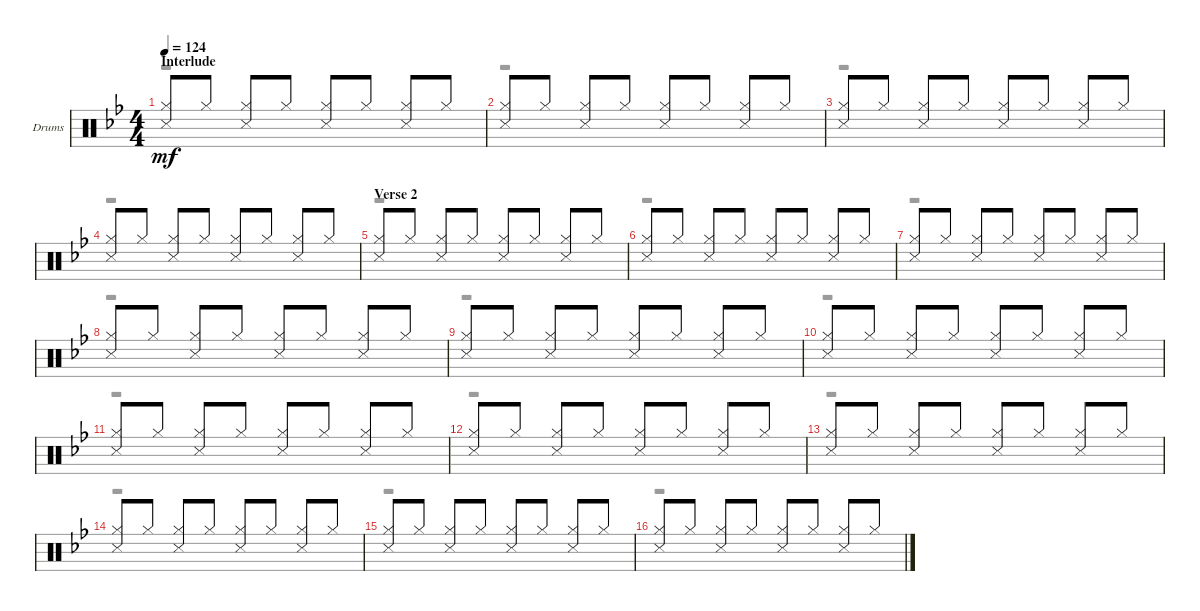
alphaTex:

\defaultSystemsLayout 4
\bracketExtendMode groupsimilarinstruments
\firstSystemTrackNameOrientation horizontal
\otherSystemsTrackNameOrientation horizontal
\track ("Drums" "Drums") {instrument percussion}
\staff {score}
\articulation defaults
\voice
\ts (4 4)
\section ("" "Interlude")
\tempo 124
\clef neutral
\ks gminor
("Hi-Hat (closed)" "Snare (side stick) 3").8{dy mf} "Hi-Hat (closed)".8 ("Hi-Hat (closed)" "Snare (side stick) 3").8 "Hi-Hat (closed)".8 ("Hi-Hat (closed)" "Snare (side stick) 3").8 "Hi-Hat (closed)".8 ("Hi-Hat (closed)" "Snare (side stick) 3").8 "Hi-Hat (closed)".8 |
("Hi-Hat (closed)" "Snare (side stick) 3").8 "Hi-Hat (closed)".8 ("Hi-Hat (closed)" "Snare (side stick) 3").8 "Hi-Hat (closed)".8 ("Hi-Hat (closed)" "Snare (side stick) 3").8 "Hi-Hat (closed)".8 ("Hi-Hat (closed)" "Snare (side stick) 3").8 "Hi-Hat (closed)".8 |
("Hi-Hat (closed)" "Snare (side stick) 3").8 "Hi-Hat (closed)".8 ("Hi-Hat (closed)" "Snare (side stick) 3").8 "Hi-Hat (closed)".8 ("Hi-Hat (closed)" "Snare (side stick) 3").8 "Hi-Hat (closed)".8 ("Hi-Hat (closed)" "Snare (side stick) 3").8 "Hi-Hat (closed)".8 |
("Hi-Hat (closed)" "Snare (side stick) 3").8 "Hi-Hat (closed)".8 ("Hi-Hat (closed)" "Snare (side stick) 3").8 "Hi-Hat (closed)".8 ("Hi-Hat (closed)" "Snare (side stick) 3").8 "Hi-Hat (closed)".8 ("Hi-Hat (closed)" "Snare (side stick) 3").8 "Hi-Hat (closed)".8 |
\section ("" "Verse 2")
("Hi-Hat (closed)" "Snare (side stick) 3").8 "Hi-Hat (closed)".8 ("Hi-Hat (closed)" "Snare (side stick) 3").8 "Hi-Hat (closed)".8 ("Hi-Hat (closed)" "Snare (side stick) 3").8 "Hi-Hat (closed)".8 ("Hi-Hat (closed)" "Snare (side stick) 3").8 "Hi-Hat (closed)".8 |
("Hi-Hat (closed)" "Snare (side stick) 3").8 "Hi-Hat (closed)".8 ("Hi-Hat (closed)" "Snare (side stick) 3").8 "Hi-Hat (closed)".8 ("Hi-Hat (closed)" "Snare (side stick) 3").8 "Hi-Hat (closed)".8 ("Hi-Hat (closed)" "Snare (side stick) 3").8 "Hi-Hat (closed)".8 |
("Hi-Hat (closed)" "Snare (side stick) 3").8 "Hi-Hat (closed)".8 ("Hi-Hat (closed)" "Snare (side stick) 3").8 "Hi-Hat (closed)".8 ("Hi-Hat (closed)" "Snare (side stick) 3").8 "Hi-Hat (closed)".8 ("Hi-Hat (closed)" "Snare (side stick) 3").8 "Hi-Hat (closed)".8 |
("Hi-Hat (closed)" "Snare (side stick) 3").8 "Hi-Hat (closed)".8 ("Hi-Hat (closed)" "Snare (side stick) 3").8 "Hi-Hat (closed)".8 ("Hi-Hat (closed)" "Snare (side stick) 3").8 "Hi-Hat (closed)".8 ("Hi-Hat (closed)" "Snare (side stick) 3").8 "Hi-Hat (closed)".8 |
("Hi-Hat (closed)" "Snare (side stick) 3").8 "Hi-Hat (closed)".8 ("Hi-Hat (closed)" "Snare (side stick) 3").8 "Hi-Hat (closed)".8 ("Hi-Hat (closed)" "Snare (side stick) 3").8 "Hi-Hat (closed)".8 ("Hi-Hat (closed)" "Snare (side stick) 3").8 "Hi-Hat (closed)".8 |
("Hi-Hat (closed)" "Snare (side stick) 3").8 "Hi-Hat (closed)".8 ("Hi-Hat (closed)" "Snare (side stick) 3").8 "Hi-Hat (closed)".8 ("Hi-Hat (closed)" "Snare (side stick) 3").8 "Hi-Hat (closed)".8 ("Hi-Hat (closed)" "Snare (side stick) 3").8 "Hi-Hat (closed)".8 |
("Hi-Hat (closed)" "Snare (side stick) 3").8 "Hi-Hat (closed)".8 ("Hi-Hat (closed)" "Snare (side stick) 3").8 "Hi-Hat (closed)".8 ("Hi-Hat (closed)" "Snare (side stick) 3").8 "Hi-Hat (closed)".8 ("Hi-Hat (closed)" "Snare (side stick) 3").8 "Hi-Hat (closed)".8 |
("Hi-Hat (closed)" "Snare (side stick) 3").8 "Hi-Hat (closed)".8 ("Hi-Hat (closed)" "Snare (side stick) 3").8 "Hi-Hat (closed)".8 ("Hi-Hat (closed)" "Snare (side stick) 3").8 "Hi-Hat (closed)".8 ("Hi-Hat (closed)" "Snare (side stick) 3").8 "Hi-Hat (closed)".8 |
("Hi-Hat (closed)" "Snare (side stick) 3").8 "Hi-Hat (closed)".8 ("Hi-Hat (closed)" "Snare (side stick) 3").8 "Hi-Hat (closed)".8 ("Hi-Hat (closed)" "Snare (side stick) 3").8 "Hi-Hat (closed)".8 ("Hi-Hat (closed)" "Snare (side stick) 3").8 "Hi-Hat (closed)".8 |
("Hi-Hat (closed)" "Snare (side stick) 3").8 "Hi-Hat (closed)".8 ("Hi-Hat (closed)" "Snare (side stick) 3").8 "Hi-Hat (closed)".8 ("Hi-Hat (closed)" "Snare (side stick) 3").8 "Hi-Hat (closed)".8 ("Hi-Hat (closed)" "Snare (side stick) 3").8 "Hi-Hat (closed)".8 |
("Hi-Hat (closed)" "Snare (side stick) 3").8 "Hi-Hat (closed)".8 ("Hi-Hat (closed)" "Snare (side stick) 3").8 "Hi-Hat (closed)".8 ("Hi-Hat (closed)" "Snare (side stick) 3").8 "Hi-Hat (closed)".8 ("Hi-Hat (closed)" "Snare (side stick) 3").8 "Hi-Hat (closed)".8 |
("Hi-Hat (closed)" "Snare (side stick) 3").8 "Hi-Hat (closed)".8 ("Hi-Hat (closed)" "Snare (side stick) 3").8 "Hi-Hat (closed)".8 ("Hi-Hat (closed)" "Snare (side stick) 3").8 "Hi-Hat (closed)".8 ("Hi-Hat (closed)" "Snare (side stick) 3").8 "Hi-Hat (closed)".8
\voice
\clef neutral
\ottava regular
\simile none
\ks gminor
r.1{dy mf} |
r.1 |
r.1 |
r.1 |
r.1 |
r.1 |
r.1 |
r.1 |
r.1 |
r.1 |
r.1 |
r.1 |
r.1 |
r.1 |
r.1 |
r.1
